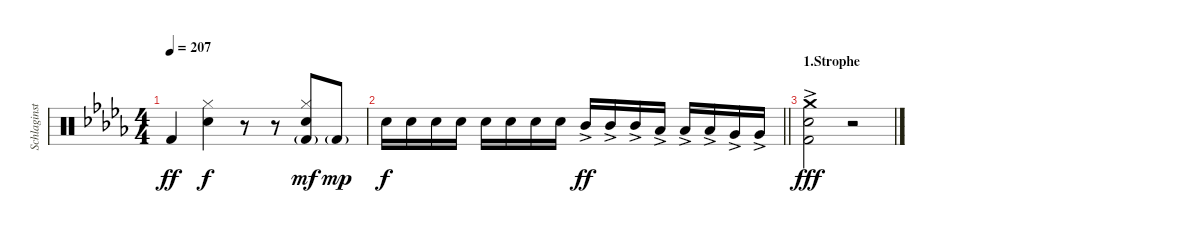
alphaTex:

\track ("Schlaginstrumente - Auswahl" "Schlaginst") {instrument percussion}
\staff {score}
\articulation defaults
\ts (4 4)
\tempo 207
\clef neutral
\ks bbminor "Kick (hit) 2".4{dy ff}
("Hi-Hat (closed)" "Snare (hit) 2").4{dy f} r.8 r.8 ("Hi-Hat (closed)" "Snare (hit) 2" "Kick (hit) 2"{g}).8{dy mf} "Kick (hit) 2"{g}.8{dy mp} |
\barLineRight lightlight "Snare (hit) 2".16{dy f} "Snare (hit) 2".16 "Snare (hit) 2".16 "Snare (hit) 2".16 "Snare (hit) 2".16 "Snare (hit) 2".16 "Snare (hit) 2".16 "Snare (hit) 2".16 "Mid Tom (hit)"{ac}.16{dy ff} "Mid Tom (hit)"{ac}.16 "Mid Tom (hit)"{ac}.16 "Low Tom (hit)"{ac}.16 "Low Tom (hit)"{ac}.16 "Low Tom (hit)"{ac}.16 "Very Low Tom (hit)"{ac}.16 "Very Low Tom (hit)"{ac}.16
|
\section ("" "1.Strophe")
("Crash medium (hit)"{ac} "Snare (hit) 2"{ac} "Kick (hit) 2"{ac}).2{dy fff} r.2
